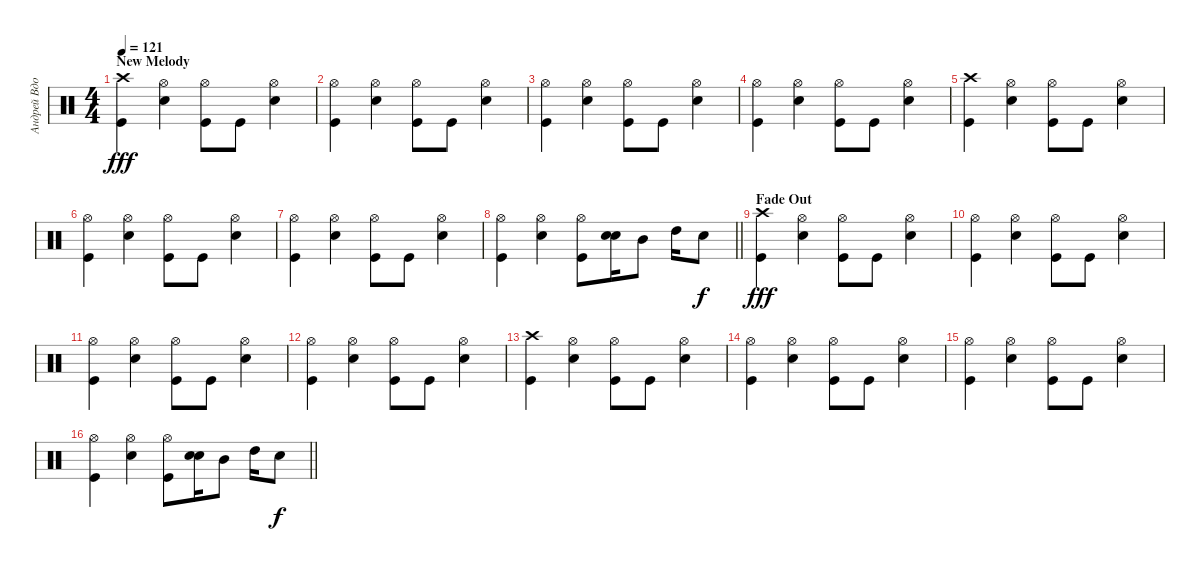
\track ("Андрей Вдовиченко" "Андрей Вдо") {instrument percussion}
\staff {score}
\articulation defaults
\ts (4 4)
\section ("" "New Melody")
\tempo 121
\clef neutral
\ks c
("Crash high (hit)" "Kick (hit)").4{dy fff} ("Hi-Hat (open)" "Electric Snare (hit)").4 ("Hi-Hat (open)" "Kick (hit)").8 "Kick (hit)".8 ("Hi-Hat (open)" "Electric Snare (hit)").4 |
("Hi-Hat (open)" "Kick (hit)").4 ("Hi-Hat (open)" "Electric Snare (hit)").4 ("Hi-Hat (open)" "Kick (hit)").8 "Kick (hit)".8 ("Hi-Hat (open)" "Electric Snare (hit)").4 |
("Hi-Hat (open)" "Kick (hit)").4 ("Hi-Hat (open)" "Electric Snare (hit)").4 ("Hi-Hat (open)" "Kick (hit)").8 "Kick (hit)".8 ("Hi-Hat (open)" "Electric Snare (hit)").4 |
("Hi-Hat (open)" "Kick (hit)").4 ("Hi-Hat (open)" "Electric Snare (hit)").4 ("Hi-Hat (open)" "Kick (hit)").8 "Kick (hit)".8 ("Hi-Hat (open)" "Electric Snare (hit)").4 |
("Crash high (hit)" "Kick (hit)").4 ("Hi-Hat (open)" "Electric Snare (hit)").4 ("Hi-Hat (open)" "Kick (hit)").8 "Kick (hit)".8 ("Hi-Hat (open)" "Electric Snare (hit)").4 |
("Hi-Hat (open)" "Kick (hit)").4 ("Hi-Hat (open)" "Electric Snare (hit)").4 ("Hi-Hat (open)" "Kick (hit)").8 "Kick (hit)".8 ("Hi-Hat (open)" "Electric Snare (hit)").4 |
("Hi-Hat (open)" "Kick (hit)").4 ("Hi-Hat (open)" "Electric Snare (hit)").4 ("Hi-Hat (open)" "Kick (hit)").8 "Kick (hit)".8 ("Hi-Hat (open)" "Electric Snare (hit)").4 |
\barLineRight lightlight
("Hi-Hat (open)" "Kick (hit)").4 ("Hi-Hat (open)" "Electric Snare (hit)").4 ("Hi-Hat (open)" "Kick (hit)").8 ("Electric Snare (hit)" "Snare (hit) 2").16 "Mid Tom (hit)".8 "High Tom (hit)".16 "Snare (hit) 2".8{dy f} |
\section ("" "Fade Out")
("Crash high (hit)" "Kick (hit)").4{dy fff} ("Hi-Hat (open)" "Electric Snare (hit)").4 ("Hi-Hat (open)" "Kick (hit)").8 "Kick (hit)".8 ("Hi-Hat (open)" "Electric Snare (hit)").4 |
("Hi-Hat (open)" "Kick (hit)").4 ("Hi-Hat (open)" "Electric Snare (hit)").4 ("Hi-Hat (open)" "Kick (hit)").8 "Kick (hit)".8 ("Hi-Hat (open)" "Electric Snare (hit)").4 |
("Hi-Hat (open)" "Kick (hit)").4 ("Hi-Hat (open)" "Electric Snare (hit)").4 ("Hi-Hat (open)" "Kick (hit)").8 "Kick (hit)".8 ("Hi-Hat (open)" "Electric Snare (hit)").4 |
("Hi-Hat (open)" "Kick (hit)").4 ("Hi-Hat (open)" "Electric Snare (hit)").4 ("Hi-Hat (open)" "Kick (hit)").8 "Kick (hit)".8 ("Hi-Hat (open)" "Electric Snare (hit)").4 |
("Crash high (hit)" "Kick (hit)").4 ("Hi-Hat (open)" "Electric Snare (hit)").4 ("Hi-Hat (open)" "Kick (hit)").8 "Kick (hit)".8 ("Hi-Hat (open)" "Electric Snare (hit)").4 |
("Hi-Hat (open)" "Kick (hit)").4 ("Hi-Hat (open)" "Electric Snare (hit)").4 ("Hi-Hat (open)" "Kick (hit)").8 "Kick (hit)".8 ("Hi-Hat (open)" "Electric Snare (hit)").4 |
("Hi-Hat (open)" "Kick (hit)").4 ("Hi-Hat (open)" "Electric Snare (hit)").4 ("Hi-Hat (open)" "Kick (hit)").8 "Kick (hit)".8 ("Hi-Hat (open)" "Electric Snare (hit)").4 |
\barLineRight lightlight
("Hi-Hat (open)" "Kick (hit)").4 ("Hi-Hat (open)" "Electric Snare (hit)").4 ("Hi-Hat (open)" "Kick (hit)").8 ("Electric Snare (hit)" "Snare (hit) 2").16 "Mid Tom (hit)".8 "High Tom (hit)".16 "Snare (hit) 2".8{dy f}
